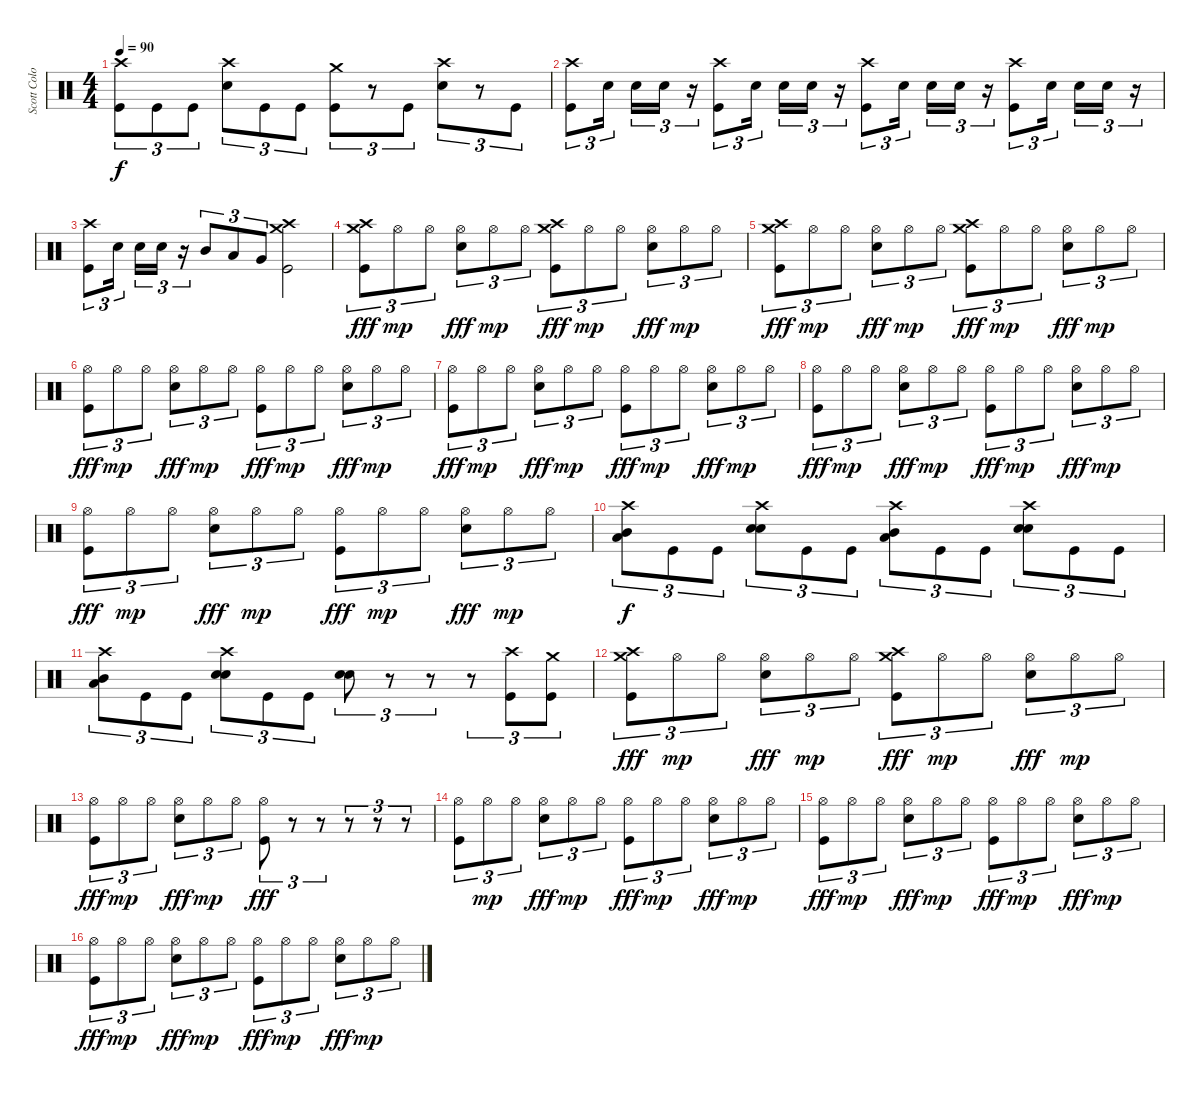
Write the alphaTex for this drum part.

\track ("Scott Colombus" "Scott Colo") {instrument percussion}
\staff {score}
\articulation defaults
\ts (4 4)
\tempo 90
\clef neutral
\ks c
("Crash high (hit)" "Kick (hit)").8{tu (3 2) dy f} "Kick (hit)".8{tu (3 2)} "Kick (hit)".8{tu (3 2)} ("Crash high (hit)" "Snare (hit) 2").8{tu (3 2)} "Kick (hit)".8{tu (3 2)} "Kick (hit)".8{tu (3 2)} ("Crash medium (hit)" "Kick (hit)").8{tu (3 2)} r.8{tu (3 2)} "Kick (hit)".8{tu (3 2)} ("Crash high (hit)" "Snare (hit) 2").8{tu (3 2)} r.8{tu (3 2)} "Kick (hit)".8{tu (3 2)} |
("Crash high (hit)" "Kick (hit)").8{tu (3 2)} "Snare (hit) 2".16{tu (3 2)} "Snare (hit) 2".16{tu (3 2)} "Snare (hit) 2".16{tu (3 2)} r.16{tu (3 2)} ("Crash high (hit)" "Kick (hit)").8{tu (3 2)} "Snare (hit) 2".16{tu (3 2)} "Snare (hit) 2".16{tu (3 2)} "Snare (hit) 2".16{tu (3 2)} r.16{tu (3 2)} ("Crash high (hit)" "Kick (hit)").8{tu (3 2)} "Snare (hit) 2".16{tu (3 2)} "Snare (hit) 2".16{tu (3 2)} "Snare (hit) 2".16{tu (3 2)} r.16{tu (3 2)} ("Crash high (hit)" "Kick (hit)").8{tu (3 2)} "Snare (hit) 2".16{tu (3 2)} "Snare (hit) 2".16{tu (3 2)} "Snare (hit) 2".16{tu (3 2)} r.16{tu (3 2)} |
("Crash high (hit)" "Kick (hit)").8{tu (3 2)} "Snare (hit) 2".16{tu (3 2)} "Snare (hit) 2".16{tu (3 2)} "Snare (hit) 2".16{tu (3 2)} r.16{tu (3 2)} "Mid Tom (hit)".8{tu (3 2)} "Low Tom (hit)".8{tu (3 2)} "Very Low Tom (hit)".8{tu (3 2)} ("Crash high (hit)" "Crash medium (hit)" "Kick (hit)").2 |
("Crash high (hit)" "Crash medium (hit)" "Kick (hit)").8{tu (3 2) dy fff} "Hi-Hat (open)".8{tu (3 2) dy mp} "Hi-Hat (open)".8{tu (3 2)} ("Hi-Hat (open)" "Snare (hit) 2").8{tu (3 2) dy fff} "Hi-Hat (open)".8{tu (3 2) dy mp} "Hi-Hat (open)".8{tu (3 2)} ("Crash high (hit)" "Crash medium (hit)" "Kick (hit)").8{tu (3 2) dy fff} "Hi-Hat (open)".8{tu (3 2) dy mp} "Hi-Hat (open)".8{tu (3 2)} ("Hi-Hat (open)" "Snare (hit) 2").8{tu (3 2) dy fff} "Hi-Hat (open)".8{tu (3 2) dy mp} "Hi-Hat (open)".8{tu (3 2)} |
("Crash high (hit)" "Crash medium (hit)" "Kick (hit)").8{tu (3 2) dy fff} "Hi-Hat (open)".8{tu (3 2) dy mp} "Hi-Hat (open)".8{tu (3 2)} ("Hi-Hat (open)" "Snare (hit) 2").8{tu (3 2) dy fff} "Hi-Hat (open)".8{tu (3 2) dy mp} "Hi-Hat (open)".8{tu (3 2)} ("Crash high (hit)" "Crash medium (hit)" "Kick (hit)").8{tu (3 2) dy fff} "Hi-Hat (open)".8{tu (3 2) dy mp} "Hi-Hat (open)".8{tu (3 2)} ("Hi-Hat (open)" "Snare (hit) 2").8{tu (3 2) dy fff} "Hi-Hat (open)".8{tu (3 2) dy mp} "Hi-Hat (open)".8{tu (3 2)} |
("Hi-Hat (open)" "Kick (hit)").8{tu (3 2) dy fff} "Hi-Hat (open)".8{tu (3 2) dy mp} "Hi-Hat (open)".8{tu (3 2)} ("Hi-Hat (open)" "Snare (hit) 2").8{tu (3 2) dy fff} "Hi-Hat (open)".8{tu (3 2) dy mp} "Hi-Hat (open)".8{tu (3 2)} ("Hi-Hat (open)" "Kick (hit)").8{tu (3 2) dy fff} "Hi-Hat (open)".8{tu (3 2) dy mp} "Hi-Hat (open)".8{tu (3 2)} ("Hi-Hat (open)" "Snare (hit) 2").8{tu (3 2) dy fff} "Hi-Hat (open)".8{tu (3 2) dy mp} "Hi-Hat (open)".8{tu (3 2)} |
("Hi-Hat (open)" "Kick (hit)").8{tu (3 2) dy fff} "Hi-Hat (open)".8{tu (3 2) dy mp} "Hi-Hat (open)".8{tu (3 2)} ("Hi-Hat (open)" "Snare (hit) 2").8{tu (3 2) dy fff} "Hi-Hat (open)".8{tu (3 2) dy mp} "Hi-Hat (open)".8{tu (3 2)} ("Hi-Hat (open)" "Kick (hit)").8{tu (3 2) dy fff} "Hi-Hat (open)".8{tu (3 2) dy mp} "Hi-Hat (open)".8{tu (3 2)} ("Hi-Hat (open)" "Snare (hit) 2").8{tu (3 2) dy fff} "Hi-Hat (open)".8{tu (3 2) dy mp} "Hi-Hat (open)".8{tu (3 2)} |
("Hi-Hat (open)" "Kick (hit)").8{tu (3 2) dy fff} "Hi-Hat (open)".8{tu (3 2) dy mp} "Hi-Hat (open)".8{tu (3 2)} ("Hi-Hat (open)" "Snare (hit) 2").8{tu (3 2) dy fff} "Hi-Hat (open)".8{tu (3 2) dy mp} "Hi-Hat (open)".8{tu (3 2)} ("Hi-Hat (open)" "Kick (hit)").8{tu (3 2) dy fff} "Hi-Hat (open)".8{tu (3 2) dy mp} "Hi-Hat (open)".8{tu (3 2)} ("Hi-Hat (open)" "Snare (hit) 2").8{tu (3 2) dy fff} "Hi-Hat (open)".8{tu (3 2) dy mp} "Hi-Hat (open)".8{tu (3 2)} |
("Hi-Hat (open)" "Kick (hit)").8{tu (3 2) dy fff} "Hi-Hat (open)".8{tu (3 2) dy mp} "Hi-Hat (open)".8{tu (3 2)} ("Hi-Hat (open)" "Snare (hit) 2").8{tu (3 2) dy fff} "Hi-Hat (open)".8{tu (3 2) dy mp} "Hi-Hat (open)".8{tu (3 2)} ("Hi-Hat (open)" "Kick (hit)").8{tu (3 2) dy fff} "Hi-Hat (open)".8{tu (3 2) dy mp} "Hi-Hat (open)".8{tu (3 2)} ("Hi-Hat (open)" "Snare (hit) 2").8{tu (3 2) dy fff} "Hi-Hat (open)".8{tu (3 2) dy mp} "Hi-Hat (open)".8{tu (3 2)} |
("Crash high (hit)" "Low Tom (hit)" "Mid Tom (hit)").8{tu (3 2) dy f} "Kick (hit)".8{tu (3 2)} "Kick (hit)".8{tu (3 2)} ("Crash high (hit)" "Snare (hit) 2" "Snare (hit) 2").8{tu (3 2)} "Kick (hit)".8{tu (3 2)} "Kick (hit)".8{tu (3 2)} ("Crash high (hit)" "Mid Tom (hit)" "Low Tom (hit)").8{tu (3 2)} "Kick (hit)".8{tu (3 2)} "Kick (hit)".8{tu (3 2)} ("Crash high (hit)" "Snare (hit) 2" "Snare (hit) 2").8{tu (3 2)} "Kick (hit)".8{tu (3 2)} "Kick (hit)".8{tu (3 2)} |
("Crash high (hit)" "Low Tom (hit)" "Mid Tom (hit)").8{tu (3 2)} "Kick (hit)".8{tu (3 2)} "Kick (hit)".8{tu (3 2)} ("Crash high (hit)" "Snare (hit) 2" "Snare (hit) 2").8{tu (3 2)} "Kick (hit)".8{tu (3 2)} "Kick (hit)".8{tu (3 2)} ("Snare (hit) 2" "Snare (hit) 2").8{tu (3 2)} r.8{tu (3 2)} r.8{tu (3 2)} r.8{tu (3 2)} ("Crash high (hit)" "Kick (hit)").8{tu (3 2)} ("Crash medium (hit)" "Kick (hit)").8{tu (3 2)} |
("Crash high (hit)" "Crash medium (hit)" "Kick (hit)").8{tu (3 2) dy fff} "Hi-Hat (open)".8{tu (3 2) dy mp} "Hi-Hat (open)".8{tu (3 2)} ("Hi-Hat (open)" "Snare (hit) 2").8{tu (3 2) dy fff} "Hi-Hat (open)".8{tu (3 2) dy mp} "Hi-Hat (open)".8{tu (3 2)} ("Crash high (hit)" "Crash medium (hit)" "Kick (hit)").8{tu (3 2) dy fff} "Hi-Hat (open)".8{tu (3 2) dy mp} "Hi-Hat (open)".8{tu (3 2)} ("Hi-Hat (open)" "Snare (hit) 2").8{tu (3 2) dy fff} "Hi-Hat (open)".8{tu (3 2) dy mp} "Hi-Hat (open)".8{tu (3 2)} |
("Hi-Hat (open)" "Kick (hit)").8{tu (3 2) dy fff} "Hi-Hat (open)".8{tu (3 2) dy mp} "Hi-Hat (open)".8{tu (3 2)} ("Hi-Hat (open)" "Snare (hit) 2").8{tu (3 2) dy fff} "Hi-Hat (open)".8{tu (3 2) dy mp} "Hi-Hat (open)".8{tu (3 2)} ("Hi-Hat (open)" "Kick (hit)").8{tu (3 2) dy fff} r.8{tu (3 2)} r.8{tu (3 2)} r.8{tu (3 2)} r.8{tu (3 2)} r.8{tu (3 2)} |
("Hi-Hat (open)" "Kick (hit)").8{tu (3 2)} "Hi-Hat (open)".8{tu (3 2) dy mp} "Hi-Hat (open)".8{tu (3 2)} ("Hi-Hat (open)" "Snare (hit) 2").8{tu (3 2) dy fff} "Hi-Hat (open)".8{tu (3 2) dy mp} "Hi-Hat (open)".8{tu (3 2)} ("Hi-Hat (open)" "Kick (hit)").8{tu (3 2) dy fff} "Hi-Hat (open)".8{tu (3 2) dy mp} "Hi-Hat (open)".8{tu (3 2)} ("Hi-Hat (open)" "Snare (hit) 2").8{tu (3 2) dy fff} "Hi-Hat (open)".8{tu (3 2) dy mp} "Hi-Hat (open)".8{tu (3 2)} |
("Hi-Hat (open)" "Kick (hit)").8{tu (3 2) dy fff} "Hi-Hat (open)".8{tu (3 2) dy mp} "Hi-Hat (open)".8{tu (3 2)} ("Hi-Hat (open)" "Snare (hit) 2").8{tu (3 2) dy fff} "Hi-Hat (open)".8{tu (3 2) dy mp} "Hi-Hat (open)".8{tu (3 2)} ("Hi-Hat (open)" "Kick (hit)").8{tu (3 2) dy fff} "Hi-Hat (open)".8{tu (3 2) dy mp} "Hi-Hat (open)".8{tu (3 2)} ("Hi-Hat (open)" "Snare (hit) 2").8{tu (3 2) dy fff} "Hi-Hat (open)".8{tu (3 2) dy mp} "Hi-Hat (open)".8{tu (3 2)} |
("Hi-Hat (open)" "Kick (hit)").8{tu (3 2) dy fff} "Hi-Hat (open)".8{tu (3 2) dy mp} "Hi-Hat (open)".8{tu (3 2)} ("Hi-Hat (open)" "Snare (hit) 2").8{tu (3 2) dy fff} "Hi-Hat (open)".8{tu (3 2) dy mp} "Hi-Hat (open)".8{tu (3 2)} ("Hi-Hat (open)" "Kick (hit)").8{tu (3 2) dy fff} "Hi-Hat (open)".8{tu (3 2) dy mp} "Hi-Hat (open)".8{tu (3 2)} ("Hi-Hat (open)" "Snare (hit) 2").8{tu (3 2) dy fff} "Hi-Hat (open)".8{tu (3 2) dy mp} "Hi-Hat (open)".8{tu (3 2)}
